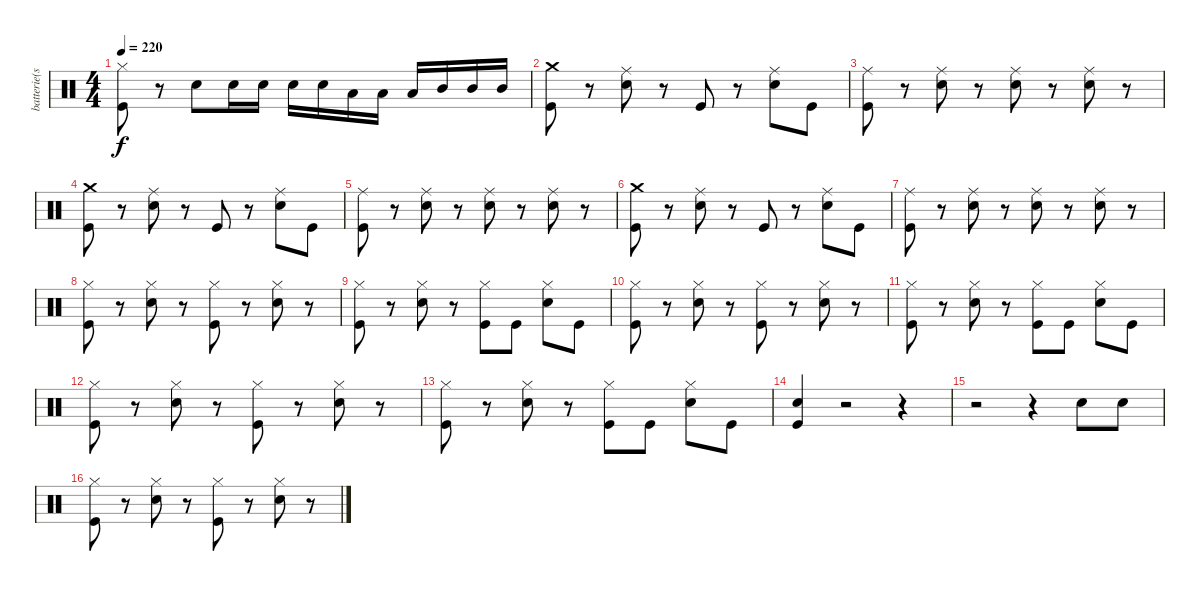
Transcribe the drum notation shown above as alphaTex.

\track ("batterie(scott)" "batterie(s") {instrument percussion}
\staff {score}
\articulation defaults
\ts (4 4)
\tempo 220
\clef neutral
\ks c
("Hi-Hat (closed)" "Kick (hit)").8{dy f} r.8 "Snare (hit) 2".8 "Snare (hit) 2".16 "Snare (hit) 2".16 "Snare (hit) 2".16 "Snare (hit) 2".16 "Low Tom (hit)".16 "Low Tom (hit)".16 "Low Tom (hit)".16 "Mid Tom (hit)".16 "Mid Tom (hit)".16 "Mid Tom (hit)".16 |
("Crash medium (hit)" "Kick (hit)").8 r.8 ("Ride (middle)" "Snare (hit) 2").8 r.8 "Kick (hit)".8 r.8 ("Ride (middle)" "Snare (hit) 2").8 "Kick (hit)".8 |
("Ride (middle)" "Kick (hit)").8 r.8 ("Ride (middle)" "Snare (hit) 2").8 r.8 ("Ride (middle)" "Snare (hit) 2").8 r.8 ("Ride (middle)" "Snare (hit) 2").8 r.8 |
("Crash medium (hit)" "Kick (hit)").8 r.8 ("Ride (middle)" "Snare (hit) 2").8 r.8 "Kick (hit)".8 r.8 ("Ride (middle)" "Snare (hit) 2").8 "Kick (hit)".8 |
("Ride (middle)" "Kick (hit)").8 r.8 ("Ride (middle)" "Snare (hit) 2").8 r.8 ("Ride (middle)" "Snare (hit) 2").8 r.8 ("Ride (middle)" "Snare (hit) 2").8 r.8 |
("Crash medium (hit)" "Kick (hit)").8 r.8 ("Ride (middle)" "Snare (hit) 2").8 r.8 "Kick (hit)".8 r.8 ("Ride (middle)" "Snare (hit) 2").8 "Kick (hit)".8 |
("Ride (middle)" "Kick (hit)").8 r.8 ("Ride (middle)" "Snare (hit) 2").8 r.8 ("Ride (middle)" "Snare (hit) 2").8 r.8 ("Ride (middle)" "Snare (hit) 2").8 r.8 |
("Hi-Hat (closed)" "Kick (hit)").8 r.8 ("Hi-Hat (closed)" "Snare (hit) 2").8 r.8 ("Hi-Hat (closed)" "Kick (hit)").8 r.8 ("Hi-Hat (closed)" "Snare (hit) 2").8 r.8 |
("Hi-Hat (closed)" "Kick (hit)").8 r.8 ("Hi-Hat (closed)" "Snare (hit) 2").8 r.8 ("Hi-Hat (closed)" "Kick (hit)").8 "Kick (hit)".8 ("Hi-Hat (closed)" "Snare (hit) 2").8 "Kick (hit)".8 |
("Hi-Hat (closed)" "Kick (hit)").8 r.8 ("Hi-Hat (closed)" "Snare (hit) 2").8 r.8 ("Hi-Hat (closed)" "Kick (hit)").8 r.8 ("Hi-Hat (closed)" "Snare (hit) 2").8 r.8 |
("Hi-Hat (closed)" "Kick (hit)").8 r.8 ("Hi-Hat (closed)" "Snare (hit) 2").8 r.8 ("Hi-Hat (closed)" "Kick (hit)").8 "Kick (hit)".8 ("Hi-Hat (closed)" "Snare (hit) 2").8 "Kick (hit)".8 |
("Hi-Hat (closed)" "Kick (hit)").8 r.8 ("Hi-Hat (closed)" "Snare (hit) 2").8 r.8 ("Hi-Hat (closed)" "Kick (hit)").8 r.8 ("Hi-Hat (closed)" "Snare (hit) 2").8 r.8 |
("Hi-Hat (closed)" "Kick (hit)").8 r.8 ("Hi-Hat (closed)" "Snare (hit) 2").8 r.8 ("Hi-Hat (closed)" "Kick (hit)").8 "Kick (hit)".8 ("Hi-Hat (closed)" "Snare (hit) 2").8 "Kick (hit)".8 |
("Snare (hit) 2" "Kick (hit)").4 r.2 r.4 |
r.2 r.4 "Snare (hit) 2".8 "Snare (hit) 2".8 |
("Hi-Hat (closed)" "Kick (hit)").8 r.8 ("Hi-Hat (closed)" "Snare (hit) 2").8 r.8 ("Hi-Hat (closed)" "Kick (hit)").8 r.8 ("Hi-Hat (closed)" "Snare (hit) 2").8 r.8
